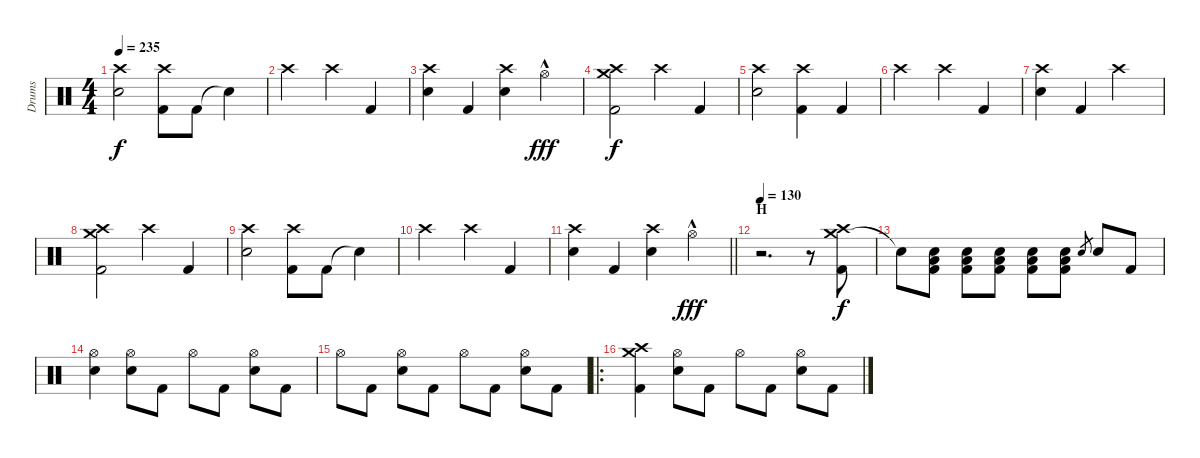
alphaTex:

\track ("Drums" "Drums") {instrument percussion}
\staff {score}
\articulation defaults
\ts (4 4)
\tempo 235
\clef neutral
\ks c
("Crash high (hit)" "Electric Snare (hit)").2{dy f} ("Crash high (hit)" "Kick (hit) 2").8 "Kick (hit) 2".8 "Snare (hit)"{t}.4 |
"Crash high (hit)".2 "Crash high (hit)".4 "Kick (hit) 2".4 |
("Crash high (hit)" "Electric Snare (hit)").4 "Kick (hit) 2".4 ("Crash high (hit)" "Electric Snare (hit)").4 "Hi-Hat (open)"{hac}.4{dy fff} |
("Crash medium (hit)" "Crash high (hit)" "Kick (hit) 2").2{dy f} "Crash high (hit)".4 "Kick (hit) 2".4 |
("Crash high (hit)" "Electric Snare (hit)").2 ("Crash high (hit)" "Kick (hit) 2").4 "Kick (hit) 2".4 |
"Crash high (hit)".2 "Crash high (hit)".4 "Kick (hit) 2".4 |
("Crash high (hit)" "Electric Snare (hit)").4 "Kick (hit) 2".4 "Crash high (hit)".2 |
("Crash medium (hit)" "Crash high (hit)" "Kick (hit) 2").2 "Crash high (hit)".4 "Kick (hit) 2".4 |
("Crash high (hit)" "Electric Snare (hit)").2 ("Crash high (hit)" "Kick (hit) 2").8 "Kick (hit) 2".8 "Snare (hit)"{t}.4 |
"Crash high (hit)".2 "Crash high (hit)".4 "Kick (hit) 2".4 |
\barLineRight lightlight
("Crash high (hit)" "Electric Snare (hit)").4 "Kick (hit) 2".4 ("Crash high (hit)" "Electric Snare (hit)").4 "Hi-Hat (open)"{hac}.4{dy fff} |
\section ("" "H")
\tempo 130
r.2{d} r.8 ("Crash medium (hit)" "Crash high (hit)" "Kick (hit) 2").8{dy f} |
"Snare (hit)"{t}.8 ("Low Tom (hit)" "Electric Snare (hit)" "Kick (hit) 2").8 ("Low Tom (hit)" "Electric Snare (hit)" "Kick (hit) 2").8 ("Low Tom (hit)" "Electric Snare (hit)" "Kick (hit) 2").8 ("Low Tom (hit)" "Electric Snare (hit)" "Kick (hit) 2").8 ("Low Tom (hit)" "Electric Snare (hit)" "Kick (hit) 2").8 "Electric Snare (hit)".8{gr} "Electric Snare (hit)".8 "Kick (hit) 2".8 |
("Hi-Hat (open)" "Electric Snare (hit)").4 ("Hi-Hat (open)" "Electric Snare (hit)").8 "Kick (hit) 2".8 "Hi-Hat (open)".8 "Kick (hit) 2".8 ("Hi-Hat (open)" "Electric Snare (hit)").8 "Kick (hit) 2".8 |
"Hi-Hat (open)".8 "Kick (hit) 2".8 ("Hi-Hat (open)" "Electric Snare (hit)").8 "Kick (hit) 2".8 "Hi-Hat (open)".8 "Kick (hit) 2".8 ("Hi-Hat (open)" "Electric Snare (hit)").8 "Kick (hit) 2".8 |
\ro
("Crash medium (hit)" "Crash high (hit)" "Kick (hit) 2").4 ("Hi-Hat (open)" "Electric Snare (hit)").8 "Kick (hit) 2".8 "Hi-Hat (open)".8 "Kick (hit) 2".8 ("Hi-Hat (open)" "Electric Snare (hit)").8 "Kick (hit) 2".8
